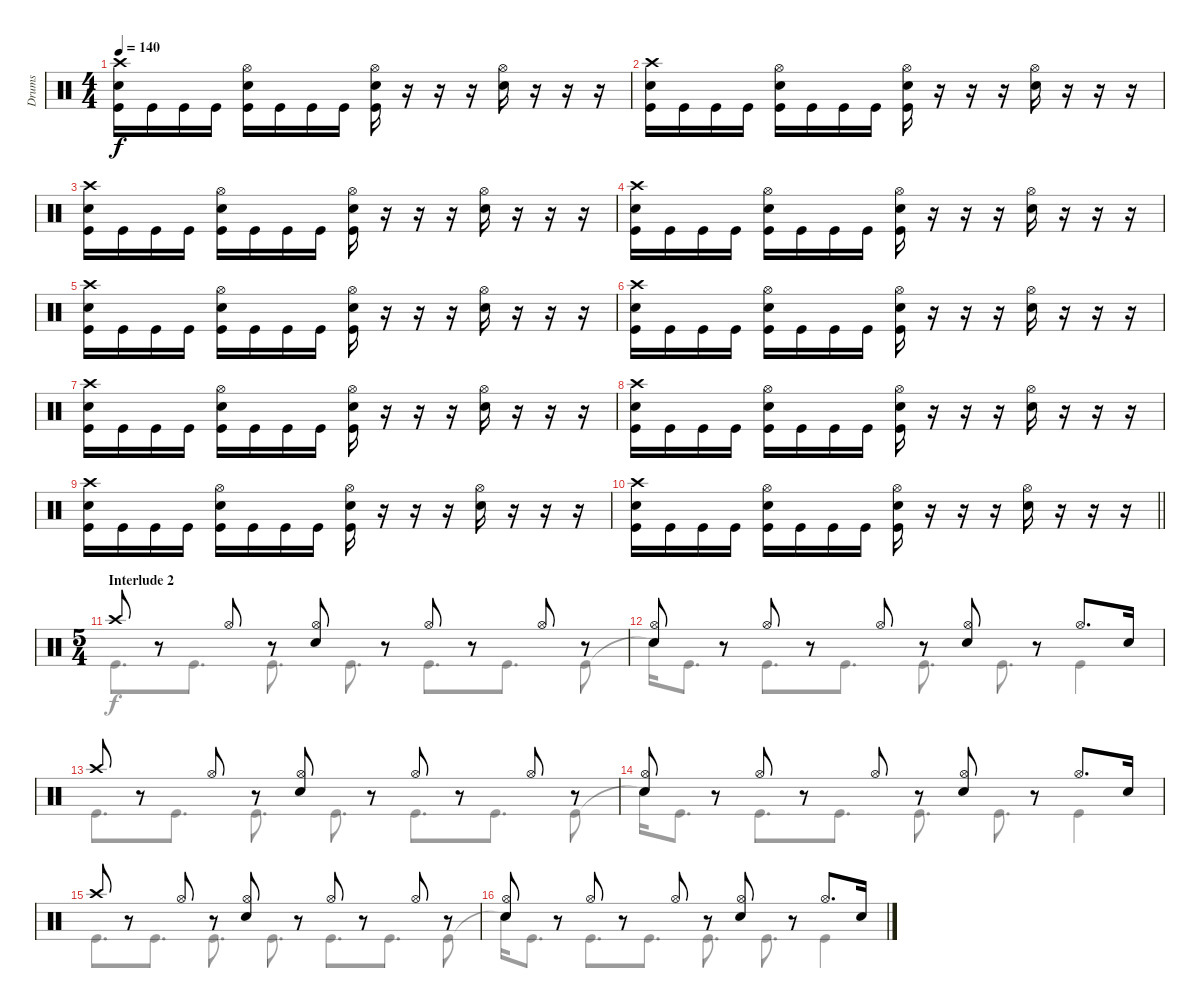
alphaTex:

\track ("Drums" "Drums") {instrument percussion}
\staff {score}
\articulation defaults
\voice
\ts (4 4)
\tempo 140
\clef neutral
\ks c
("Crash high (hit)" "Snare (hit) 2" "Kick (hit)").16{dy f} "Kick (hit)".16 "Kick (hit)".16 "Kick (hit)".16 ("Hi-Hat (open)" "Snare (hit) 2" "Kick (hit)").16 "Kick (hit)".16 "Kick (hit)".16 "Kick (hit)".16 ("Hi-Hat (open)" "Snare (hit) 2" "Kick (hit)").16 r.16 r.16 r.16 ("Hi-Hat (open)" "Snare (hit) 2").16 r.16 r.16 r.16 |
("Crash high (hit)" "Snare (hit) 2" "Kick (hit)").16 "Kick (hit)".16 "Kick (hit)".16 "Kick (hit)".16 ("Hi-Hat (open)" "Snare (hit) 2" "Kick (hit)").16 "Kick (hit)".16 "Kick (hit)".16 "Kick (hit)".16 ("Hi-Hat (open)" "Snare (hit) 2" "Kick (hit)").16 r.16 r.16 r.16 ("Hi-Hat (open)" "Snare (hit) 2").16 r.16 r.16 r.16 |
("Crash high (hit)" "Snare (hit) 2" "Kick (hit)").16 "Kick (hit)".16 "Kick (hit)".16 "Kick (hit)".16 ("Hi-Hat (open)" "Snare (hit) 2" "Kick (hit)").16 "Kick (hit)".16 "Kick (hit)".16 "Kick (hit)".16 ("Hi-Hat (open)" "Snare (hit) 2" "Kick (hit)").16 r.16 r.16 r.16 ("Hi-Hat (open)" "Snare (hit) 2").16 r.16 r.16 r.16 |
("Crash high (hit)" "Snare (hit) 2" "Kick (hit)").16 "Kick (hit)".16 "Kick (hit)".16 "Kick (hit)".16 ("Hi-Hat (open)" "Snare (hit) 2" "Kick (hit)").16 "Kick (hit)".16 "Kick (hit)".16 "Kick (hit)".16 ("Hi-Hat (open)" "Snare (hit) 2" "Kick (hit)").16 r.16 r.16 r.16 ("Hi-Hat (open)" "Snare (hit) 2").16 r.16 r.16 r.16 |
("Crash high (hit)" "Snare (hit) 2" "Kick (hit)").16 "Kick (hit)".16 "Kick (hit)".16 "Kick (hit)".16 ("Hi-Hat (open)" "Snare (hit) 2" "Kick (hit)").16 "Kick (hit)".16 "Kick (hit)".16 "Kick (hit)".16 ("Hi-Hat (open)" "Snare (hit) 2" "Kick (hit)").16 r.16 r.16 r.16 ("Hi-Hat (open)" "Snare (hit) 2").16 r.16 r.16 r.16 |
("Crash high (hit)" "Snare (hit) 2" "Kick (hit)").16 "Kick (hit)".16 "Kick (hit)".16 "Kick (hit)".16 ("Hi-Hat (open)" "Snare (hit) 2" "Kick (hit)").16 "Kick (hit)".16 "Kick (hit)".16 "Kick (hit)".16 ("Hi-Hat (open)" "Snare (hit) 2" "Kick (hit)").16 r.16 r.16 r.16 ("Hi-Hat (open)" "Snare (hit) 2").16 r.16 r.16 r.16 |
("Crash high (hit)" "Snare (hit) 2" "Kick (hit)").16 "Kick (hit)".16 "Kick (hit)".16 "Kick (hit)".16 ("Hi-Hat (open)" "Snare (hit) 2" "Kick (hit)").16 "Kick (hit)".16 "Kick (hit)".16 "Kick (hit)".16 ("Hi-Hat (open)" "Snare (hit) 2" "Kick (hit)").16 r.16 r.16 r.16 ("Hi-Hat (open)" "Snare (hit) 2").16 r.16 r.16 r.16 |
("Crash high (hit)" "Snare (hit) 2" "Kick (hit)").16 "Kick (hit)".16 "Kick (hit)".16 "Kick (hit)".16 ("Hi-Hat (open)" "Snare (hit) 2" "Kick (hit)").16 "Kick (hit)".16 "Kick (hit)".16 "Kick (hit)".16 ("Hi-Hat (open)" "Snare (hit) 2" "Kick (hit)").16 r.16 r.16 r.16 ("Hi-Hat (open)" "Snare (hit) 2").16 r.16 r.16 r.16 |
("Crash high (hit)" "Snare (hit) 2" "Kick (hit)").16 "Kick (hit)".16 "Kick (hit)".16 "Kick (hit)".16 ("Hi-Hat (open)" "Snare (hit) 2" "Kick (hit)").16 "Kick (hit)".16 "Kick (hit)".16 "Kick (hit)".16 ("Hi-Hat (open)" "Snare (hit) 2" "Kick (hit)").16 r.16 r.16 r.16 ("Hi-Hat (open)" "Snare (hit) 2").16 r.16 r.16 r.16 |
\barLineRight lightlight
("Crash high (hit)" "Snare (hit) 2" "Kick (hit)").16 "Kick (hit)".16 "Kick (hit)".16 "Kick (hit)".16 ("Hi-Hat (open)" "Snare (hit) 2" "Kick (hit)").16 "Kick (hit)".16 "Kick (hit)".16 "Kick (hit)".16 ("Hi-Hat (open)" "Snare (hit) 2" "Kick (hit)").16 r.16 r.16 r.16 ("Hi-Hat (open)" "Snare (hit) 2").16 r.16 r.16 r.16 |
\ts (5 4)
\section ("" "Interlude 2")
"Crash high (hit)".8 r.8 "Hi-Hat (open)".8 r.8 ("Hi-Hat (open)" "Snare (hit) 2").8 r.8 "Hi-Hat (open)".8 r.8 "Hi-Hat (open)".8 r.8 |
("Hi-Hat (open)" "Snare (hit) 2").8 r.8 "Hi-Hat (open)".8 r.8 "Hi-Hat (open)".8 r.8 ("Hi-Hat (open)" "Snare (hit) 2").8 r.8 "Hi-Hat (open)".8{d} "Snare (hit) 2".16 |
"Crash high (hit)".8 r.8 "Hi-Hat (open)".8 r.8 ("Hi-Hat (open)" "Snare (hit) 2").8 r.8 "Hi-Hat (open)".8 r.8 "Hi-Hat (open)".8 r.8 |
("Hi-Hat (open)" "Snare (hit) 2").8 r.8 "Hi-Hat (open)".8 r.8 "Hi-Hat (open)".8 r.8 ("Hi-Hat (open)" "Snare (hit) 2").8 r.8 "Hi-Hat (open)".8{d} "Snare (hit) 2".16 |
"Crash high (hit)".8 r.8 "Hi-Hat (open)".8 r.8 ("Hi-Hat (open)" "Snare (hit) 2").8 r.8 "Hi-Hat (open)".8 r.8 "Hi-Hat (open)".8 r.8 |
("Hi-Hat (open)" "Snare (hit) 2").8 r.8 "Hi-Hat (open)".8 r.8 "Hi-Hat (open)".8 r.8 ("Hi-Hat (open)" "Snare (hit) 2").8 r.8 "Hi-Hat (open)".8{d} "Snare (hit) 2".16
\voice
\clef neutral
\ottava regular
\simile none
\ks c
|
|
|
|
|
|
|
|
|
\barLineRight lightlight
|
"Kick (hit)".8{d} "Kick (hit)".8{d} "Kick (hit)".8{d} "Kick (hit)".8{d} "Kick (hit)".8{d} "Kick (hit)".8{d} "Kick (hit)".8 |
"Snare (hit)"{t}.16 "Kick (hit)".8{d} "Kick (hit)".8{d} "Kick (hit)".8{d} "Kick (hit)".8{d} "Kick (hit)".8{d} "Kick (hit)".4 |
"Kick (hit)".8{d} "Kick (hit)".8{d} "Kick (hit)".8{d} "Kick (hit)".8{d} "Kick (hit)".8{d} "Kick (hit)".8{d} "Kick (hit)".8 |
"Snare (hit)"{t}.16 "Kick (hit)".8{d} "Kick (hit)".8{d} "Kick (hit)".8{d} "Kick (hit)".8{d} "Kick (hit)".8{d} "Kick (hit)".4 |
"Kick (hit)".8{d} "Kick (hit)".8{d} "Kick (hit)".8{d} "Kick (hit)".8{d} "Kick (hit)".8{d} "Kick (hit)".8{d} "Kick (hit)".8 |
"Snare (hit)"{t}.16 "Kick (hit)".8{d} "Kick (hit)".8{d} "Kick (hit)".8{d} "Kick (hit)".8{d} "Kick (hit)".8{d} "Kick (hit)".4
